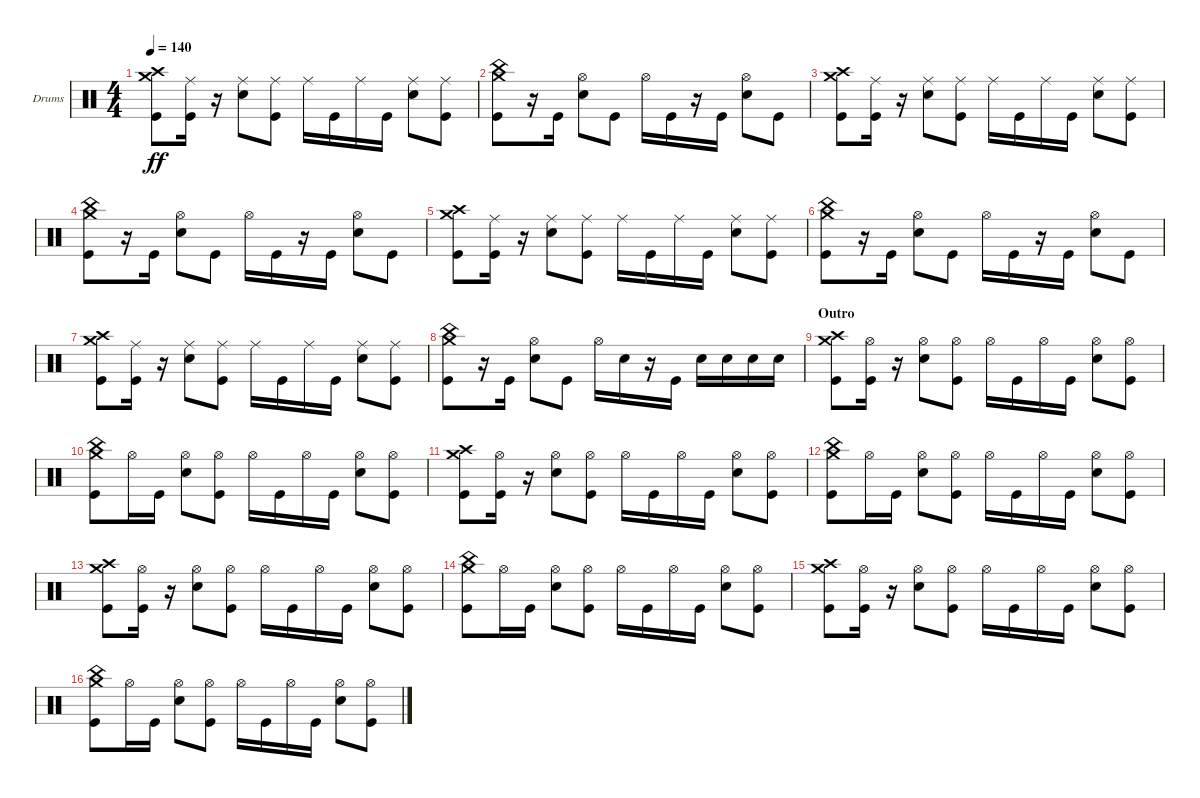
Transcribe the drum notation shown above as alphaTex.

\defaultSystemsLayout 4
\bracketExtendMode nobrackets
\firstSystemTrackNameOrientation horizontal
\otherSystemsTrackNameOrientation horizontal
\track ("Dave Abbruzzese" "Drums") {solo instrument percussion}
\staff {score}
\articulation defaults
\ts (4 4)
\tempo 140
\clef neutral
\ks c
("Crash high (hit)" "Kick (hit)" "Crash medium (hit)").8{dy ff} ("Kick (hit)" "Ride (middle)").16 r.16 ("Snare (hit) 2" "Ride (middle)").8 ("Kick (hit)" "Ride (middle)").8 "Ride (middle)".16 "Kick (hit)".16 "Ride (middle)".16 "Kick (hit)".16 ("Snare (hit) 2" "Ride (middle)").8 ("Kick (hit)" "Ride (middle)").8 |
("China (hit)" "Kick (hit)" "Crash medium (hit)").8 r.16 "Kick (hit)".16 ("Snare (hit) 2" "Hi-Hat (open)").8 "Kick (hit)".8 "Hi-Hat (open)".16 "Kick (hit)".16 r.16 "Kick (hit)".16 ("Snare (hit) 2" "Hi-Hat (open)").8 "Kick (hit)".8 |
("Crash high (hit)" "Kick (hit)" "Crash medium (hit)").8 ("Kick (hit)" "Ride (middle)").16 r.16 ("Snare (hit) 2" "Ride (middle)").8 ("Kick (hit)" "Ride (middle)").8 "Ride (middle)".16 "Kick (hit)".16 "Ride (middle)".16 "Kick (hit)".16 ("Snare (hit) 2" "Ride (middle)").8 ("Kick (hit)" "Ride (middle)").8 |
("China (hit)" "Kick (hit)" "Crash medium (hit)").8 r.16 "Kick (hit)".16 ("Snare (hit) 2" "Hi-Hat (open)").8 "Kick (hit)".8 "Hi-Hat (open)".16 "Kick (hit)".16 r.16 "Kick (hit)".16 ("Snare (hit) 2" "Hi-Hat (open)").8 "Kick (hit)".8 |
("Crash high (hit)" "Kick (hit)" "Crash medium (hit)").8 ("Kick (hit)" "Ride (middle)").16 r.16 ("Snare (hit) 2" "Ride (middle)").8 ("Kick (hit)" "Ride (middle)").8 "Ride (middle)".16 "Kick (hit)".16 "Ride (middle)".16 "Kick (hit)".16 ("Snare (hit) 2" "Ride (middle)").8 ("Kick (hit)" "Ride (middle)").8 |
("China (hit)" "Kick (hit)" "Crash medium (hit)").8 r.16 "Kick (hit)".16 ("Snare (hit) 2" "Hi-Hat (open)").8 "Kick (hit)".8 "Hi-Hat (open)".16 "Kick (hit)".16 r.16 "Kick (hit)".16 ("Snare (hit) 2" "Hi-Hat (open)").8 "Kick (hit)".8 |
("Crash high (hit)" "Kick (hit)" "Crash medium (hit)").8 ("Kick (hit)" "Ride (middle)").16 r.16 ("Snare (hit) 2" "Ride (middle)").8 ("Kick (hit)" "Ride (middle)").8 "Ride (middle)".16 "Kick (hit)".16 "Ride (middle)".16 "Kick (hit)".16 ("Snare (hit) 2" "Ride (middle)").8 ("Kick (hit)" "Ride (middle)").8 |
("China (hit)" "Kick (hit)" "Crash medium (hit)").8 r.16 "Kick (hit)".16 ("Snare (hit) 2" "Hi-Hat (open)").8 "Kick (hit)".8 "Hi-Hat (open)".16 "Snare (hit) 2".16 r.16 "Kick (hit)".16 "Snare (hit) 2".16 "Snare (hit) 2".16 "Snare (hit) 2".16 "Snare (hit) 2".16 |
\section ("" "Outro")
("Crash high (hit)" "Kick (hit)" "Crash medium (hit)").8 ("Kick (hit)" "Hi-Hat (open)").16 r.16 ("Snare (hit) 2" "Hi-Hat (open)").8 ("Kick (hit)" "Hi-Hat (open)").8 "Hi-Hat (open)".16 "Kick (hit)".16 "Hi-Hat (open)".16 "Kick (hit)".16 ("Snare (hit) 2" "Hi-Hat (open)").8 ("Kick (hit)" "Hi-Hat (open)").8 |
("Kick (hit)" "Crash medium (hit)" "China (hit)").8 "Hi-Hat (open)".16 "Kick (hit)".16 ("Snare (hit) 2" "Hi-Hat (open)").8 ("Kick (hit)" "Hi-Hat (open)").8 "Hi-Hat (open)".16 "Kick (hit)".16 "Hi-Hat (open)".16 "Kick (hit)".16 ("Snare (hit) 2" "Hi-Hat (open)").8 ("Kick (hit)" "Hi-Hat (open)").8 |
("Crash high (hit)" "Kick (hit)" "Crash medium (hit)").8 ("Kick (hit)" "Hi-Hat (open)").16 r.16 ("Snare (hit) 2" "Hi-Hat (open)").8 ("Kick (hit)" "Hi-Hat (open)").8 "Hi-Hat (open)".16 "Kick (hit)".16 "Hi-Hat (open)".16 "Kick (hit)".16 ("Snare (hit) 2" "Hi-Hat (open)").8 ("Kick (hit)" "Hi-Hat (open)").8 |
("Kick (hit)" "Crash medium (hit)" "China (hit)").8 "Hi-Hat (open)".16 "Kick (hit)".16 ("Snare (hit) 2" "Hi-Hat (open)").8 ("Kick (hit)" "Hi-Hat (open)").8 "Hi-Hat (open)".16 "Kick (hit)".16 "Hi-Hat (open)".16 "Kick (hit)".16 ("Snare (hit) 2" "Hi-Hat (open)").8 ("Kick (hit)" "Hi-Hat (open)").8 |
("Crash high (hit)" "Kick (hit)" "Crash medium (hit)").8 ("Kick (hit)" "Hi-Hat (open)").16 r.16 ("Snare (hit) 2" "Hi-Hat (open)").8 ("Kick (hit)" "Hi-Hat (open)").8 "Hi-Hat (open)".16 "Kick (hit)".16 "Hi-Hat (open)".16 "Kick (hit)".16 ("Snare (hit) 2" "Hi-Hat (open)").8 ("Kick (hit)" "Hi-Hat (open)").8 |
("Kick (hit)" "Crash medium (hit)" "China (hit)").8 "Hi-Hat (open)".16 "Kick (hit)".16 ("Snare (hit) 2" "Hi-Hat (open)").8 ("Kick (hit)" "Hi-Hat (open)").8 "Hi-Hat (open)".16 "Kick (hit)".16 "Hi-Hat (open)".16 "Kick (hit)".16 ("Snare (hit) 2" "Hi-Hat (open)").8 ("Kick (hit)" "Hi-Hat (open)").8 |
("Crash high (hit)" "Kick (hit)" "Crash medium (hit)").8 ("Kick (hit)" "Hi-Hat (open)").16 r.16 ("Snare (hit) 2" "Hi-Hat (open)").8 ("Kick (hit)" "Hi-Hat (open)").8 "Hi-Hat (open)".16 "Kick (hit)".16 "Hi-Hat (open)".16 "Kick (hit)".16 ("Snare (hit) 2" "Hi-Hat (open)").8 ("Kick (hit)" "Hi-Hat (open)").8 |
("Kick (hit)" "Crash medium (hit)" "China (hit)").8 "Hi-Hat (open)".16 "Kick (hit)".16 ("Snare (hit) 2" "Hi-Hat (open)").8 ("Kick (hit)" "Hi-Hat (open)").8 "Hi-Hat (open)".16 "Kick (hit)".16 "Hi-Hat (open)".16 "Kick (hit)".16 ("Snare (hit) 2" "Hi-Hat (open)").8 ("Kick (hit)" "Hi-Hat (open)").8
